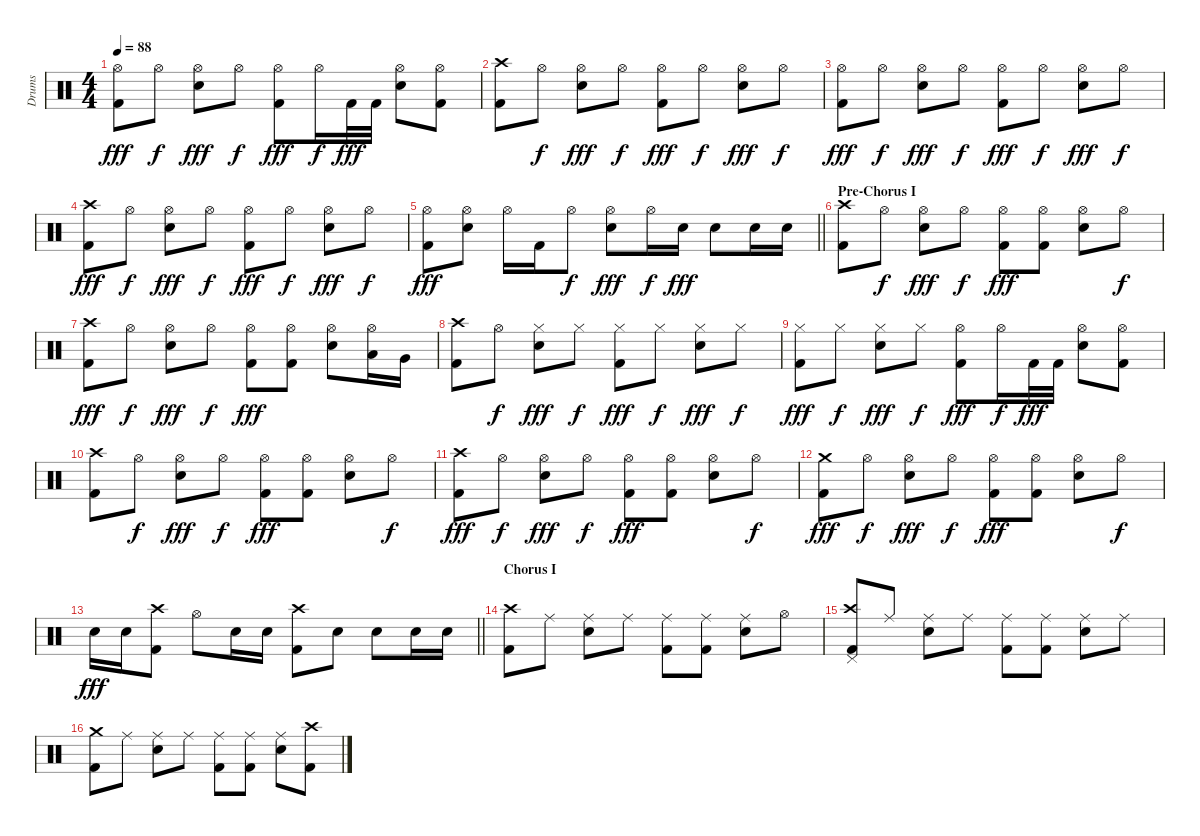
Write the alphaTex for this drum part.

\track ("Drums" "Drums") {instrument percussion}
\staff {score}
\articulation defaults
\ts (4 4)
\tempo 88
\clef neutral
\ks c
("Hi-Hat (open)" "Kick (hit) 2").8{dy fff} "Hi-Hat (open)".8{dy f} ("Hi-Hat (open)" "Snare (hit) 2").8{dy fff} "Hi-Hat (open)".8{dy f} ("Hi-Hat (open)" "Kick (hit) 2").8{dy fff} "Hi-Hat (open)".16{dy f} "Kick (hit) 2".32{dy fff} "Kick (hit) 2".32 ("Hi-Hat (open)" "Snare (hit) 2").8 ("Hi-Hat (open)" "Kick (hit) 2").8 |
("Crash high (hit)" "Kick (hit) 2").8 "Hi-Hat (open)".8{dy f} ("Hi-Hat (open)" "Snare (hit) 2").8{dy fff} "Hi-Hat (open)".8{dy f} ("Hi-Hat (open)" "Kick (hit) 2").8{dy fff} "Hi-Hat (open)".8{dy f} ("Hi-Hat (open)" "Snare (hit) 2").8{dy fff} "Hi-Hat (open)".8{dy f} |
("Hi-Hat (open)" "Kick (hit) 2").8{dy fff} "Hi-Hat (open)".8{dy f} ("Hi-Hat (open)" "Snare (hit) 2").8{dy fff} "Hi-Hat (open)".8{dy f} ("Hi-Hat (open)" "Kick (hit) 2").8{dy fff} "Hi-Hat (open)".8{dy f} ("Hi-Hat (open)" "Snare (hit) 2").8{dy fff} "Hi-Hat (open)".8{dy f} |
("Crash high (hit)" "Kick (hit) 2").8{dy fff} "Hi-Hat (open)".8{dy f} ("Hi-Hat (open)" "Snare (hit) 2").8{dy fff} "Hi-Hat (open)".8{dy f} ("Hi-Hat (open)" "Kick (hit) 2").8{dy fff} "Hi-Hat (open)".8{dy f} ("Hi-Hat (open)" "Snare (hit) 2").8{dy fff} "Hi-Hat (open)".8{dy f} |
\barLineRight lightlight
("Hi-Hat (open)" "Kick (hit) 2").8{dy fff} ("Hi-Hat (open)" "Snare (hit) 2").8 "Hi-Hat (open)".16 "Kick (hit) 2".16 "Hi-Hat (open)".8{dy f} ("Hi-Hat (open)" "Snare (hit) 2").8{dy fff} "Hi-Hat (open)".16{dy f} "Snare (hit) 2".16{dy fff} "Snare (hit) 2".8 "Snare (hit) 2".16 "Snare (hit) 2".16 |
\section ("" "Pre-Chorus I")
("Crash high (hit)" "Kick (hit) 2").8 "Hi-Hat (open)".8{dy f} ("Hi-Hat (open)" "Snare (hit) 2").8{dy fff} "Hi-Hat (open)".8{dy f} ("Hi-Hat (open)" "Kick (hit) 2").8{dy fff} ("Hi-Hat (open)" "Kick (hit) 2").8 ("Hi-Hat (open)" "Snare (hit) 2").8 "Hi-Hat (open)".8{dy f} |
("Crash high (hit)" "Kick (hit) 2").8{dy fff} "Hi-Hat (open)".8{dy f} ("Hi-Hat (open)" "Snare (hit) 2").8{dy fff} "Hi-Hat (open)".8{dy f} ("Hi-Hat (open)" "Kick (hit) 2").8{dy fff} ("Hi-Hat (open)" "Kick (hit) 2").8 ("Hi-Hat (open)" "Snare (hit) 2").8 ("Hi-Hat (open)" "Low Tom (hit)").16 "Very Low Tom (hit)".16 |
("Crash high (hit)" "Kick (hit) 2").8 "Hi-Hat (open)".8{dy f} ("Hi-Hat (closed)" "Snare (hit) 2").8{dy fff} "Hi-Hat (closed)".8{dy f} ("Hi-Hat (closed)" "Kick (hit) 2").8{dy fff} "Hi-Hat (closed)".8{dy f} ("Hi-Hat (closed)" "Snare (hit) 2").8{dy fff} "Hi-Hat (closed)".8{dy f} |
("Hi-Hat (closed)" "Kick (hit) 2").8{dy fff} "Hi-Hat (closed)".8{dy f} ("Hi-Hat (closed)" "Snare (hit) 2").8{dy fff} "Hi-Hat (closed)".8{dy f} ("Hi-Hat (open)" "Kick (hit) 2").8{dy fff} "Hi-Hat (open)".16{dy f} "Kick (hit) 2".32{dy fff} "Kick (hit) 2".32 ("Hi-Hat (open)" "Snare (hit) 2").8 ("Hi-Hat (open)" "Kick (hit) 2").8 |
("Crash high (hit)" "Kick (hit) 2").8 "Hi-Hat (open)".8{dy f} ("Hi-Hat (open)" "Snare (hit) 2").8{dy fff} "Hi-Hat (open)".8{dy f} ("Hi-Hat (open)" "Kick (hit) 2").8{dy fff} ("Hi-Hat (open)" "Kick (hit) 2").8 ("Hi-Hat (open)" "Snare (hit) 2").8 "Hi-Hat (open)".8{dy f} |
("Crash high (hit)" "Kick (hit) 2").8{dy fff} "Hi-Hat (open)".8{dy f} ("Hi-Hat (open)" "Snare (hit) 2").8{dy fff} "Hi-Hat (open)".8{dy f} ("Hi-Hat (open)" "Kick (hit) 2").8{dy fff} ("Hi-Hat (open)" "Kick (hit) 2").8 ("Hi-Hat (open)" "Snare (hit) 2").8 "Hi-Hat (open)".8{dy f} |
("Crash medium (hit)" "Kick (hit) 2").8{dy fff} "Hi-Hat (open)".8{dy f} ("Hi-Hat (open)" "Snare (hit) 2").8{dy fff} "Hi-Hat (open)".8{dy f} ("Hi-Hat (open)" "Kick (hit) 2").8{dy fff} ("Hi-Hat (open)" "Kick (hit) 2").8 ("Hi-Hat (open)" "Snare (hit) 2").8 "Hi-Hat (open)".8{dy f} |
\barLineRight lightlight "Snare (hit) 2".16{dy fff} "Snare (hit) 2".16
("Crash high (hit)" "Kick (hit) 2").8 "Hi-Hat (open)".8 "Snare (hit) 2".16 "Snare (hit) 2".16 ("Crash high (hit)" "Kick (hit) 2").8 "Snare (hit) 2".8 "Snare (hit) 2".8 "Snare (hit) 2".16 "Snare (hit) 2".16 |
\section ("" "Chorus I")
("Crash high (hit)" "Kick (hit) 2").8 "Ride (middle)".8 ("Ride (middle)" "Snare (hit) 2").8 "Ride (middle)".8 ("Ride (middle)" "Kick (hit) 2").8 ("Ride (middle)" "Kick (hit) 2").8 ("Ride (middle)" "Snare (hit) 2").8 "Hi-Hat (open)".8 |
("Pedal Hi-Hat (hit)" "Crash high (hit)" "Kick (hit) 2").8 "Ride (middle)".8 ("Ride (middle)" "Snare (hit) 2").8 "Ride (middle)".8 ("Ride (middle)" "Kick (hit) 2").8 ("Ride (middle)" "Kick (hit) 2").8 ("Ride (middle)" "Snare (hit) 2").8 "Ride (middle)".8 |
("Crash medium (hit)" "Kick (hit) 2").8 "Ride (middle)".8 ("Ride (middle)" "Snare (hit) 2").8 "Ride (middle)".8 ("Ride (middle)" "Kick (hit) 2").8 ("Ride (middle)" "Kick (hit) 2").8 ("Ride (middle)" "Snare (hit) 2").8 ("Crash high (hit)" "Kick (hit) 2").8
